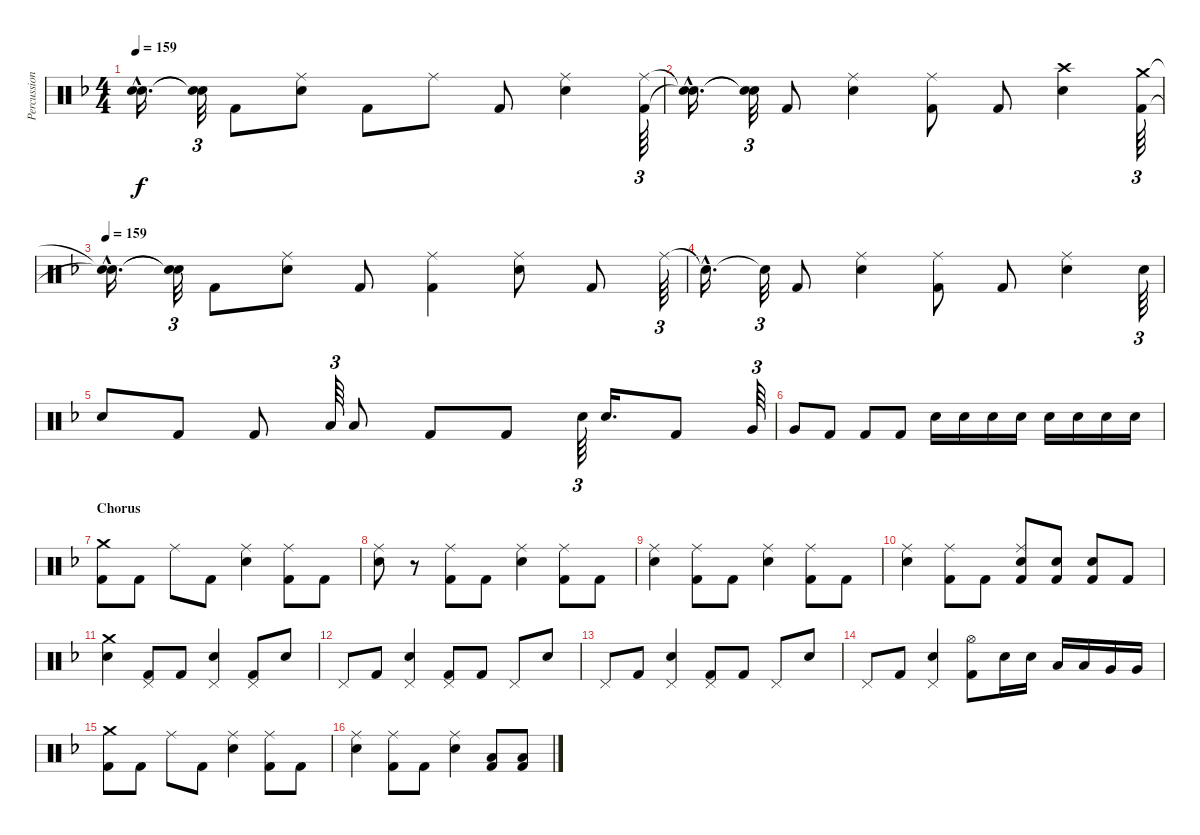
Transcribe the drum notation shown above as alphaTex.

\track ("Percussion" "Percussion") {instrument percussion}
\staff {score}
\articulation defaults
\ts (4 4)
\tempo 159
\clef neutral
\ks f
("Snare (hit)"{hac t} "Snare (hit)"{hac t}).16{d dy f} ("Snare (hit)"{t} "Snare (hit)"{t}).32{tu (3 2)} "Kick (hit) 2".8 ("Ride (middle)" "Electric Snare (hit)").8 "Kick (hit) 2".8 "Ride (middle)".8 "Kick (hit) 2".8 ("Ride (middle)" "Electric Snare (hit)").4 ("Ride (middle)" "Kick (hit) 2").64{tu (3 2)} |
("Snare (hit)"{hac t} "Snare (hit)"{hac t}).16{d} ("Snare (hit)"{t} "Snare (hit)"{t}).32{tu (3 2)} "Kick (hit) 2".8 ("Ride (middle)" "Electric Snare (hit)").4 ("Ride (middle)" "Kick (hit) 2").8 "Kick (hit) 2".8 ("Crash high (hit)" "Electric Snare (hit)").4 ("Crash medium (hit)" "Kick (hit) 2").64{tu (3 2)} |
\tempo 159
("Snare (hit)"{hac t} "Snare (hit)"{hac t}).16{d} ("Snare (hit)"{t} "Snare (hit)"{t}).32{tu (3 2)} "Kick (hit) 2".8 ("Ride (middle)" "Electric Snare (hit)").8 "Kick (hit) 2".8 ("Ride (middle)" "Kick (hit) 2").4 ("Ride (middle)" "Electric Snare (hit)").8 "Kick (hit) 2".8 "Ride (middle)".64{tu (3 2)} |
"Snare (hit)"{hac t}.16{d} "Snare (hit)"{t}.32{tu (3 2)} "Kick (hit) 2".8 ("Ride (middle)" "Electric Snare (hit)").4 ("Ride (middle)" "Kick (hit) 2").8 "Kick (hit) 2".8 ("Ride (middle)" "Electric Snare (hit)").4 "Electric Snare (hit)".64{tu (3 2)} |
"Electric Snare (hit)".8 "Kick (hit) 2".8 "Kick (hit) 2".8 "Low Tom (hit)".64{tu (3 2)} "Low Tom (hit)".8 "Kick (hit) 2".8 "Kick (hit) 2".8 "Electric Snare (hit)".64{tu (3 2)} "Electric Snare (hit)".16{d} "Kick (hit) 2".8 "Very Low Tom (hit)".64{tu (3 2)} |
"Very Low Tom (hit)".8 "Kick (hit) 2".8 "Kick (hit) 2".8 "Kick (hit) 2".8 "Electric Snare (hit)".16 "Electric Snare (hit)".16 "Electric Snare (hit)".16 "Electric Snare (hit)".16 "Electric Snare (hit)".16 "Electric Snare (hit)".16 "Electric Snare (hit)".16 "Electric Snare (hit)".16 |
\section ("" "Chorus")
("Crash medium (hit)" "Kick (hit) 2").8 "Kick (hit) 2".8 "Ride (middle)".8 "Kick (hit) 2".8 ("Ride (middle)" "Electric Snare (hit)").4 ("Ride (middle)" "Kick (hit) 2").8 "Kick (hit) 2".8 |
("Ride (middle)" "Electric Snare (hit)").8 r.8 ("Ride (middle)" "Kick (hit) 2").8 "Kick (hit) 2".8 ("Ride (middle)" "Electric Snare (hit)").4 ("Ride (middle)" "Kick (hit) 2").8 "Kick (hit) 2".8 |
("Ride (middle)" "Electric Snare (hit)").4 ("Ride (middle)" "Kick (hit) 2").8 "Kick (hit) 2".8 ("Ride (middle)" "Electric Snare (hit)").4 ("Ride (middle)" "Kick (hit) 2").8 "Kick (hit) 2".8 |
("Ride (middle)" "Electric Snare (hit)").4 ("Ride (middle)" "Kick (hit) 2").8 "Kick (hit) 2".8 ("Ride (middle)" "Electric Snare (hit)" "Kick (hit) 2").8 ("Electric Snare (hit)" "Kick (hit) 2").8 ("Electric Snare (hit)" "Kick (hit) 2").8 "Kick (hit) 2".8 |
("Crash medium (hit)" "Electric Snare (hit)").4 ("Pedal Hi-Hat (hit)" "Kick (hit) 2").8 "Kick (hit) 2".8 ("Pedal Hi-Hat (hit)" "Electric Snare (hit)").4 ("Pedal Hi-Hat (hit)" "Kick (hit) 2").8 "Electric Snare (hit)".8 |
"Pedal Hi-Hat (hit)".8 "Kick (hit) 2".8 ("Pedal Hi-Hat (hit)" "Electric Snare (hit)").4 ("Pedal Hi-Hat (hit)" "Kick (hit) 2").8 "Kick (hit) 2".8 "Pedal Hi-Hat (hit)".8 "Electric Snare (hit)".8 |
"Pedal Hi-Hat (hit)".8 "Kick (hit) 2".8 ("Pedal Hi-Hat (hit)" "Electric Snare (hit)").4 ("Pedal Hi-Hat (hit)" "Kick (hit) 2").8 "Kick (hit) 2".8 "Pedal Hi-Hat (hit)".8 "Electric Snare (hit)".8 |
"Pedal Hi-Hat (hit)".8 "Kick (hit) 2".8 ("Pedal Hi-Hat (hit)" "Electric Snare (hit)").4 ("Hi-Hat (open)" "Kick (hit) 2").8 "Electric Snare (hit)".16 "Electric Snare (hit)".16 "Low Tom (hit)".16 "Low Tom (hit)".16 "Very Low Tom (hit)".16 "Very Low Tom (hit)".16 |
("Crash medium (hit)" "Kick (hit) 2").8 "Kick (hit) 2".8 "Ride (middle)".8 "Kick (hit) 2".8 ("Ride (middle)" "Electric Snare (hit)").4 ("Ride (middle)" "Kick (hit) 2").8 "Kick (hit) 2".8 |
("Ride (middle)" "Electric Snare (hit)").4 ("Ride (middle)" "Kick (hit) 2").8 "Kick (hit) 2".8 ("Ride (middle)" "Electric Snare (hit)").4 ("Low Tom (hit)" "Kick (hit) 2").8 ("Low Tom (hit)" "Kick (hit) 2").8
